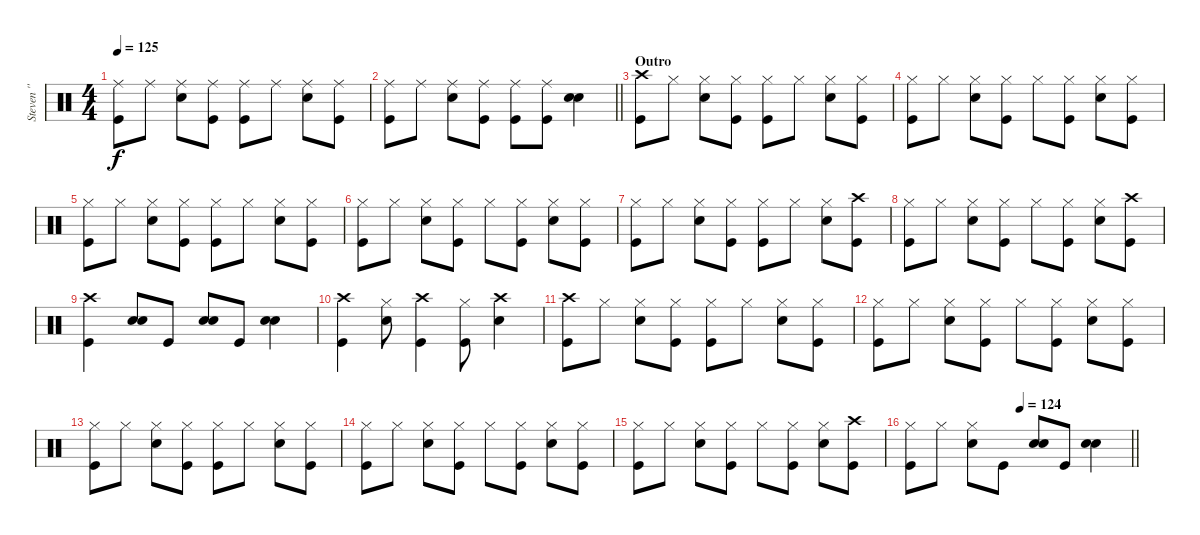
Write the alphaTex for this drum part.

\track ("Steven '' Popcorn '' Adler" "Steven '' ") {instrument percussion}
\staff {score}
\articulation defaults
\ts (4 4)
\tempo 125
\clef neutral
\ks c
("Ride (middle)" "Kick (hit)").8{dy f} "Ride (middle)".8 ("Ride (middle)" "Snare (hit) 2").8 ("Ride (middle)" "Kick (hit)").8 ("Ride (middle)" "Kick (hit)").8 "Ride (middle)".8 ("Ride (middle)" "Snare (hit) 2").8 ("Ride (middle)" "Kick (hit)").8 |
\barLineRight lightlight
("Ride (middle)" "Kick (hit)").8 "Ride (middle)".8 ("Ride (middle)" "Snare (hit) 2").8 ("Ride (middle)" "Kick (hit)").8 ("Ride (middle)" "Kick (hit)").8 ("Ride (middle)" "Kick (hit)").8 ("Snare (hit) 2" "Snare (hit) 2").4 |
\section ("" "Outro")
("Crash high (hit)" "Kick (hit)").8 "Hi-Hat (closed)".8 ("Hi-Hat (closed)" "Snare (hit) 2").8 ("Hi-Hat (closed)" "Kick (hit)").8 ("Hi-Hat (closed)" "Kick (hit)").8 "Hi-Hat (closed)".8 ("Hi-Hat (closed)" "Snare (hit) 2").8 ("Hi-Hat (closed)" "Kick (hit)").8 |
("Hi-Hat (closed)" "Kick (hit)").8 "Hi-Hat (closed)".8 ("Hi-Hat (closed)" "Snare (hit) 2").8 ("Hi-Hat (closed)" "Kick (hit)").8 "Hi-Hat (closed)".8 ("Hi-Hat (closed)" "Kick (hit)").8 ("Hi-Hat (closed)" "Snare (hit) 2").8 ("Hi-Hat (closed)" "Kick (hit)").8 |
("Hi-Hat (closed)" "Kick (hit)").8 "Hi-Hat (closed)".8 ("Hi-Hat (closed)" "Snare (hit) 2").8 ("Hi-Hat (closed)" "Kick (hit)").8 ("Hi-Hat (closed)" "Kick (hit)").8 "Hi-Hat (closed)".8 ("Hi-Hat (closed)" "Snare (hit) 2").8 ("Hi-Hat (closed)" "Kick (hit)").8 |
("Hi-Hat (closed)" "Kick (hit)").8 "Hi-Hat (closed)".8 ("Hi-Hat (closed)" "Snare (hit) 2").8 ("Hi-Hat (closed)" "Kick (hit)").8 "Hi-Hat (closed)".8 ("Hi-Hat (closed)" "Kick (hit)").8 ("Hi-Hat (closed)" "Snare (hit) 2").8 ("Hi-Hat (closed)" "Kick (hit)").8 |
("Hi-Hat (closed)" "Kick (hit)").8 "Hi-Hat (closed)".8 ("Hi-Hat (closed)" "Snare (hit) 2").8 ("Hi-Hat (closed)" "Kick (hit)").8 ("Hi-Hat (closed)" "Kick (hit)").8 "Hi-Hat (closed)".8 ("Hi-Hat (closed)" "Snare (hit) 2").8 ("Crash high (hit)" "Kick (hit)").8 |
("Hi-Hat (closed)" "Kick (hit)").8 "Hi-Hat (closed)".8 ("Hi-Hat (closed)" "Snare (hit) 2").8 ("Hi-Hat (closed)" "Kick (hit)").8 "Hi-Hat (closed)".8 ("Hi-Hat (closed)" "Kick (hit)").8 ("Hi-Hat (closed)" "Snare (hit) 2").8 ("Crash high (hit)" "Kick (hit)").8 |
("Crash high (hit)" "Kick (hit)").4 ("Snare (hit) 2" "Snare (hit) 2").8 "Kick (hit)".8 ("Snare (hit) 2" "Snare (hit) 2").8 "Kick (hit)".8 ("Snare (hit) 2" "Snare (hit) 2").4 |
("Crash high (hit)" "Kick (hit)").4 ("Hi-Hat (closed)" "Snare (hit) 2").8 ("Crash high (hit)" "Kick (hit)").4 ("Hi-Hat (closed)" "Kick (hit)").8 ("Crash high (hit)" "Snare (hit) 2").4 |
("Crash high (hit)" "Kick (hit)").8 "Hi-Hat (closed)".8 ("Hi-Hat (closed)" "Snare (hit) 2").8 ("Hi-Hat (closed)" "Kick (hit)").8 ("Hi-Hat (closed)" "Kick (hit)").8 "Hi-Hat (closed)".8 ("Hi-Hat (closed)" "Snare (hit) 2").8 ("Hi-Hat (closed)" "Kick (hit)").8 |
("Hi-Hat (closed)" "Kick (hit)").8 "Hi-Hat (closed)".8 ("Hi-Hat (closed)" "Snare (hit) 2").8 ("Hi-Hat (closed)" "Kick (hit)").8 "Hi-Hat (closed)".8 ("Hi-Hat (closed)" "Kick (hit)").8 ("Hi-Hat (closed)" "Snare (hit) 2").8 ("Hi-Hat (closed)" "Kick (hit)").8 |
("Hi-Hat (closed)" "Kick (hit)").8 "Hi-Hat (closed)".8 ("Hi-Hat (closed)" "Snare (hit) 2").8 ("Hi-Hat (closed)" "Kick (hit)").8 ("Hi-Hat (closed)" "Kick (hit)").8 "Hi-Hat (closed)".8 ("Hi-Hat (closed)" "Snare (hit) 2").8 ("Hi-Hat (closed)" "Kick (hit)").8 |
("Hi-Hat (closed)" "Kick (hit)").8 "Hi-Hat (closed)".8 ("Hi-Hat (closed)" "Snare (hit) 2").8 ("Hi-Hat (closed)" "Kick (hit)").8 "Hi-Hat (closed)".8 ("Hi-Hat (closed)" "Kick (hit)").8 ("Hi-Hat (closed)" "Snare (hit) 2").8 ("Hi-Hat (closed)" "Kick (hit)").8 |
("Hi-Hat (closed)" "Kick (hit)").8 "Hi-Hat (closed)".8 ("Hi-Hat (closed)" "Snare (hit) 2").8 ("Hi-Hat (closed)" "Kick (hit)").8 "Hi-Hat (closed)".8 ("Hi-Hat (closed)" "Kick (hit)").8 ("Hi-Hat (closed)" "Snare (hit) 2").8 ("Crash high (hit)" "Kick (hit)").8 |
\tempo (124 0.5)
\barLineRight lightlight
("Hi-Hat (closed)" "Kick (hit)").8 "Hi-Hat (closed)".8 ("Hi-Hat (closed)" "Snare (hit) 2").8 "Kick (hit)".8 ("Snare (hit) 2" "Snare (hit) 2").8 "Kick (hit)".8 ("Snare (hit) 2" "Snare (hit) 2").4
